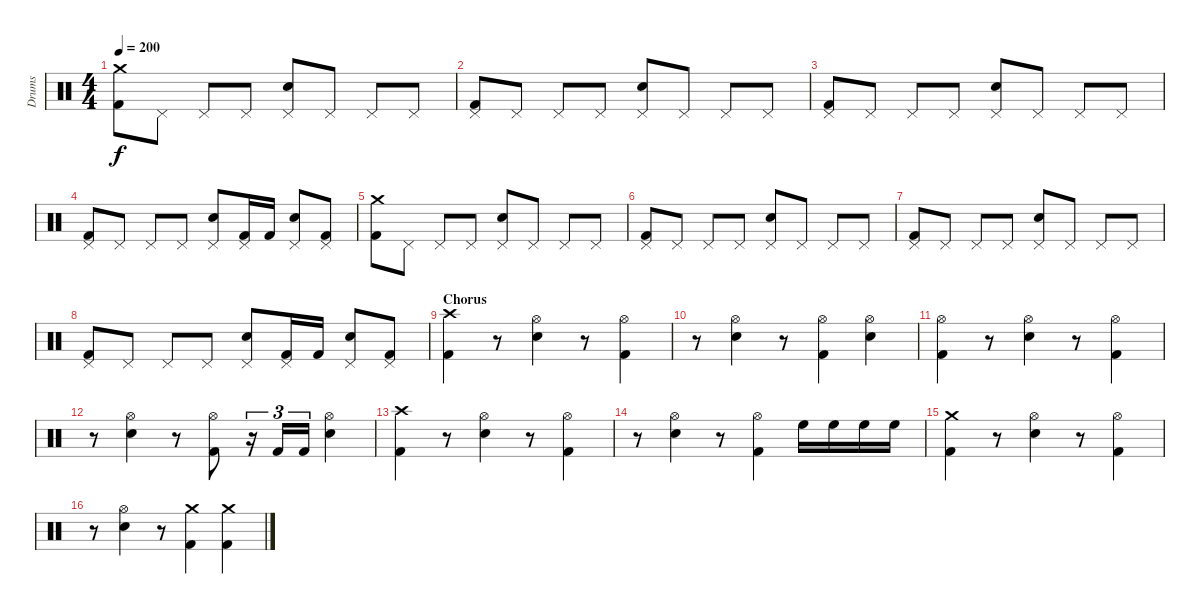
\track ("Drums" "Drums") {instrument percussion}
\staff {score}
\articulation defaults
\ts (4 4)
\tempo 200
\clef neutral
\ks c
("Crash medium (hit)" "Kick (hit) 2").8{dy f} "Pedal Hi-Hat (hit)".8 "Pedal Hi-Hat (hit)".8 "Pedal Hi-Hat (hit)".8 ("Pedal Hi-Hat (hit)" "Snare (hit) 2").8 "Pedal Hi-Hat (hit)".8 "Pedal Hi-Hat (hit)".8 "Pedal Hi-Hat (hit)".8 |
("Pedal Hi-Hat (hit)" "Kick (hit) 2").8 "Pedal Hi-Hat (hit)".8 "Pedal Hi-Hat (hit)".8 "Pedal Hi-Hat (hit)".8 ("Pedal Hi-Hat (hit)" "Snare (hit) 2").8 "Pedal Hi-Hat (hit)".8 "Pedal Hi-Hat (hit)".8 "Pedal Hi-Hat (hit)".8 |
("Pedal Hi-Hat (hit)" "Kick (hit) 2").8 "Pedal Hi-Hat (hit)".8 "Pedal Hi-Hat (hit)".8 "Pedal Hi-Hat (hit)".8 ("Pedal Hi-Hat (hit)" "Snare (hit) 2").8 "Pedal Hi-Hat (hit)".8 "Pedal Hi-Hat (hit)".8 "Pedal Hi-Hat (hit)".8 |
("Pedal Hi-Hat (hit)" "Kick (hit) 2").8 "Pedal Hi-Hat (hit)".8 "Pedal Hi-Hat (hit)".8 "Pedal Hi-Hat (hit)".8 ("Pedal Hi-Hat (hit)" "Snare (hit) 2").8 ("Pedal Hi-Hat (hit)" "Kick (hit) 2").16 "Kick (hit) 2".16 ("Pedal Hi-Hat (hit)" "Snare (hit) 2").8 ("Pedal Hi-Hat (hit)" "Kick (hit) 2").8 |
("Crash medium (hit)" "Kick (hit) 2").8 "Pedal Hi-Hat (hit)".8 "Pedal Hi-Hat (hit)".8 "Pedal Hi-Hat (hit)".8 ("Pedal Hi-Hat (hit)" "Snare (hit) 2").8 "Pedal Hi-Hat (hit)".8 "Pedal Hi-Hat (hit)".8 "Pedal Hi-Hat (hit)".8 |
("Pedal Hi-Hat (hit)" "Kick (hit) 2").8 "Pedal Hi-Hat (hit)".8 "Pedal Hi-Hat (hit)".8 "Pedal Hi-Hat (hit)".8 ("Pedal Hi-Hat (hit)" "Snare (hit) 2").8 "Pedal Hi-Hat (hit)".8 "Pedal Hi-Hat (hit)".8 "Pedal Hi-Hat (hit)".8 |
("Pedal Hi-Hat (hit)" "Kick (hit) 2").8 "Pedal Hi-Hat (hit)".8 "Pedal Hi-Hat (hit)".8 "Pedal Hi-Hat (hit)".8 ("Pedal Hi-Hat (hit)" "Snare (hit) 2").8 "Pedal Hi-Hat (hit)".8 "Pedal Hi-Hat (hit)".8 "Pedal Hi-Hat (hit)".8 |
("Pedal Hi-Hat (hit)" "Kick (hit) 2").8 "Pedal Hi-Hat (hit)".8 "Pedal Hi-Hat (hit)".8 "Pedal Hi-Hat (hit)".8 ("Pedal Hi-Hat (hit)" "Snare (hit) 2").8 ("Pedal Hi-Hat (hit)" "Kick (hit) 2").16 "Kick (hit) 2".16 ("Pedal Hi-Hat (hit)" "Snare (hit) 2").8 ("Pedal Hi-Hat (hit)" "Kick (hit) 2").8 |
\section ("" "Chorus")
("Crash high (hit)" "Kick (hit) 2").4 r.8 ("Hi-Hat (open)" "Snare (hit) 2").4 r.8 ("Hi-Hat (open)" "Kick (hit) 2").4 |
r.8 ("Hi-Hat (open)" "Snare (hit) 2").4 r.8 ("Hi-Hat (open)" "Kick (hit) 2").4 ("Hi-Hat (open)" "Snare (hit) 2").4 |
("Hi-Hat (open)" "Kick (hit) 2").4 r.8 ("Hi-Hat (open)" "Snare (hit) 2").4 r.8 ("Hi-Hat (open)" "Kick (hit) 2").4 |
r.8 ("Hi-Hat (open)" "Snare (hit) 2").4 r.8 ("Hi-Hat (open)" "Kick (hit) 2").8 r.16{tu (3 2)} "Kick (hit) 2".16{tu (3 2)} "Kick (hit) 2".16{tu (3 2)} ("Hi-Hat (open)" "Snare (hit) 2").4 |
("Crash high (hit)" "Kick (hit) 2").4 r.8 ("Hi-Hat (open)" "Snare (hit) 2").4 r.8 ("Hi-Hat (open)" "Kick (hit) 2").4 |
r.8 ("Hi-Hat (open)" "Snare (hit) 2").4 r.8 ("Hi-Hat (open)" "Kick (hit) 2").4 "High Floor Tom (hit)".16 "High Floor Tom (hit)".16 "High Floor Tom (hit)".16 "High Floor Tom (hit)".16 |
("Crash medium (hit)" "Kick (hit) 2").4 r.8 ("Hi-Hat (open)" "Snare (hit) 2").4 r.8 ("Hi-Hat (open)" "Kick (hit) 2").4 |
r.8 ("Hi-Hat (open)" "Snare (hit) 2").4 r.8 ("Crash medium (hit)" "Kick (hit) 2").4 ("Crash medium (hit)" "Kick (hit) 2").4
